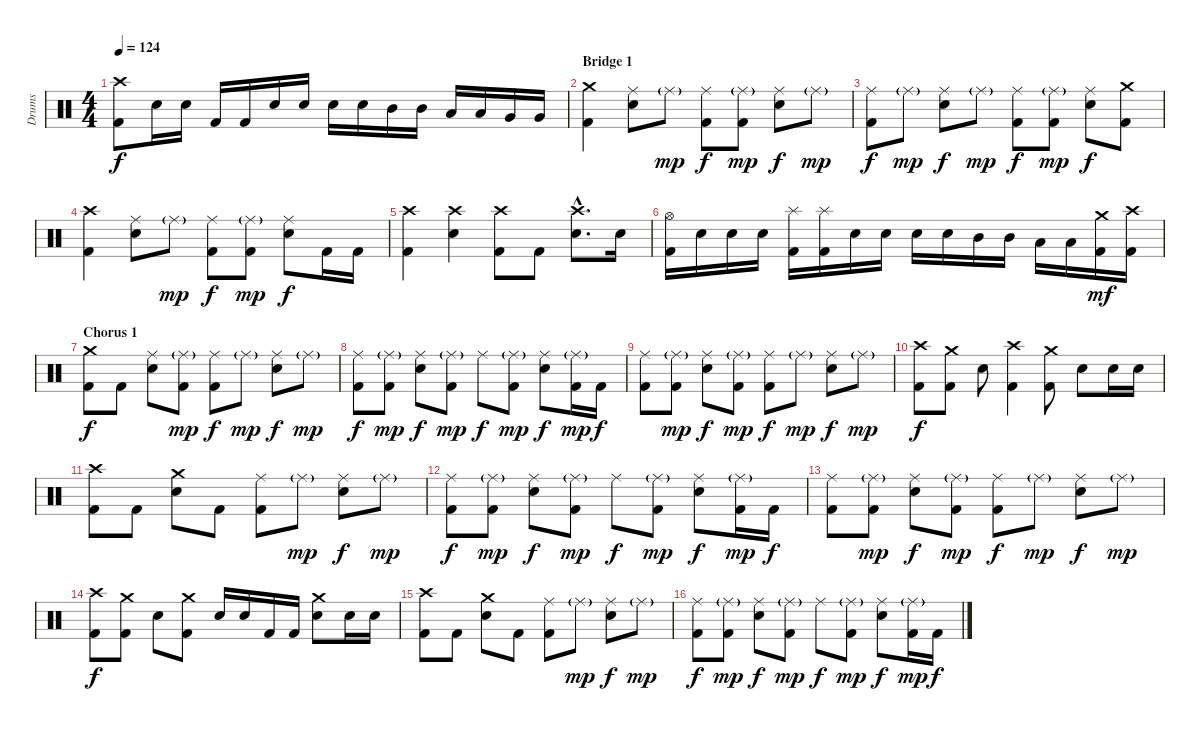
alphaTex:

\track ("Drums" "Drums") {instrument percussion}
\staff {score}
\articulation defaults
\ts (4 4)
\tempo 124
\clef neutral
\ks c
("Crash high (hit)" "Kick (hit) 2").8{dy f} "Snare (hit) 2".16 "Snare (hit) 2".16 "Kick (hit) 2".16 "Kick (hit) 2".16 "Snare (hit) 2".16 "Snare (hit) 2".16 "Snare (hit) 2".16 "Snare (hit) 2".16 "Mid Tom (hit)".16 "Mid Tom (hit)".16 "Low Tom (hit)".16 "Low Tom (hit)".16 "Very Low Tom (hit)".16 "Very Low Tom (hit)".16 |
\section ("" "Bridge 1")
("Crash medium (hit)" "Kick (hit) 2").4 ("Ride (middle)" "Snare (hit) 2").8 "Ride (middle)"{g}.8{dy mp} ("Ride (middle)" "Kick (hit) 2").8{dy f} ("Ride (middle)"{g} "Kick (hit) 2").8{dy mp} ("Ride (middle)" "Snare (hit) 2").8{dy f} "Ride (middle)"{g}.8{dy mp} |
("Ride (middle)" "Kick (hit) 2").8{dy f} "Ride (middle)"{g}.8{dy mp} ("Ride (middle)" "Snare (hit) 2").8{dy f} "Ride (middle)"{g}.8{dy mp} ("Ride (middle)" "Kick (hit) 2").8{dy f} ("Ride (middle)"{g} "Kick (hit) 2").8{dy mp} ("Ride (middle)" "Snare (hit) 2").8{dy f} ("Crash medium (hit)" "Kick (hit) 2").8 |
("Crash high (hit)" "Kick (hit) 2").4 ("Ride (middle)" "Snare (hit) 2").8 "Ride (middle)"{g}.8{dy mp} ("Ride (middle)" "Kick (hit) 2").8{dy f} ("Ride (middle)"{g} "Kick (hit) 2").8{dy mp} ("Ride (middle)" "Snare (hit) 2").8{dy f} "Kick (hit) 2".16 "Kick (hit) 2".16 |
("Crash high (hit)" "Kick (hit) 2").4 ("Crash high (hit)" "Snare (hit) 2").4 ("Crash high (hit)" "Kick (hit) 2").8 "Kick (hit) 2".8 ("Crash high (hit)"{hac} "Snare (hit) 2"{hac}).8{d} "Snare (hit) 2".16 |
("Hi-Hat (open)" "Kick (hit) 2").16 "Snare (hit) 2".16 "Snare (hit) 2".16 "Snare (hit) 2".16 ("Splash (hit)" "Kick (hit) 2").16 ("Splash (hit)" "Kick (hit) 2").16 "Snare (hit) 2".16 "Snare (hit) 2".16 "Snare (hit) 2".16 "Snare (hit) 2".16 "Mid Tom (hit)".16 "Mid Tom (hit)".16 "Low Tom (hit)".16 "Low Tom (hit)".16 ("Crash medium (hit)" "Kick (hit) 2").16{dy mf} ("Crash high (hit)" "Kick (hit) 2").16 |
\section ("" "Chorus 1")
("Crash medium (hit)" "Kick (hit) 2").8{dy f} "Kick (hit) 2".8 ("Ride (middle)" "Snare (hit) 2").8 ("Ride (middle)"{g} "Kick (hit) 2").8{dy mp} ("Ride (middle)" "Kick (hit) 2").8{dy f} "Ride (middle)"{g}.8{dy mp} ("Ride (middle)" "Snare (hit) 2").8{dy f} "Ride (middle)"{g}.8{dy mp} |
("Ride (middle)" "Kick (hit) 2").8{dy f} ("Ride (middle)"{g} "Kick (hit) 2").8{dy mp} ("Ride (middle)" "Snare (hit) 2").8{dy f} ("Ride (middle)"{g} "Kick (hit) 2").8{dy mp} "Ride (middle)".8{dy f} ("Ride (middle)"{g} "Kick (hit) 2").8{dy mp} ("Ride (middle)" "Snare (hit) 2").8{dy f} ("Ride (middle)"{g} "Kick (hit) 2").16{dy mp} "Kick (hit) 2".16{dy f} |
("Ride (middle)" "Kick (hit) 2").8 ("Ride (middle)"{g} "Kick (hit) 2").8{dy mp} ("Ride (middle)" "Snare (hit) 2").8{dy f} ("Ride (middle)"{g} "Kick (hit) 2").8{dy mp} ("Ride (middle)" "Kick (hit) 2").8{dy f} "Ride (middle)"{g}.8{dy mp} ("Ride (middle)" "Snare (hit) 2").8{dy f} "Ride (middle)"{g}.8{dy mp} |
("Crash high (hit)" "Kick (hit) 2").8{dy f} ("Crash medium (hit)" "Kick (hit) 2").8 "Snare (hit) 2".8 ("Crash high (hit)" "Kick (hit) 2").4 ("Crash medium (hit)" "Kick (hit) 2").8 "Snare (hit) 2".8 "Snare (hit) 2".16 "Snare (hit) 2".16 |
("Crash high (hit)" "Kick (hit) 2").8 "Kick (hit) 2".8 ("Crash medium (hit)" "Snare (hit) 2").8 "Kick (hit) 2".8 ("Ride (middle)" "Kick (hit) 2").8 "Ride (middle)"{g}.8{dy mp} ("Ride (middle)" "Snare (hit) 2").8{dy f} "Ride (middle)"{g}.8{dy mp} |
("Ride (middle)" "Kick (hit) 2").8{dy f} ("Ride (middle)"{g} "Kick (hit) 2").8{dy mp} ("Ride (middle)" "Snare (hit) 2").8{dy f} ("Ride (middle)"{g} "Kick (hit) 2").8{dy mp} "Ride (middle)".8{dy f} ("Ride (middle)"{g} "Kick (hit) 2").8{dy mp} ("Ride (middle)" "Snare (hit) 2").8{dy f} ("Ride (middle)"{g} "Kick (hit) 2").16{dy mp} "Kick (hit) 2".16{dy f} |
("Ride (middle)" "Kick (hit) 2").8 ("Ride (middle)"{g} "Kick (hit) 2").8{dy mp} ("Ride (middle)" "Snare (hit) 2").8{dy f} ("Ride (middle)"{g} "Kick (hit) 2").8{dy mp} ("Ride (middle)" "Kick (hit) 2").8{dy f} "Ride (middle)"{g}.8{dy mp} ("Ride (middle)" "Snare (hit) 2").8{dy f} "Ride (middle)"{g}.8{dy mp} |
("Crash high (hit)" "Kick (hit) 2").8{dy f} ("Crash medium (hit)" "Kick (hit) 2").8 "Snare (hit) 2".8 ("Crash medium (hit)" "Kick (hit) 2").8 "Snare (hit) 2".16 "Snare (hit) 2".16 "Kick (hit) 2".16 "Kick (hit) 2".16 ("Crash medium (hit)" "Snare (hit) 2").8 "Snare (hit) 2".16 "Snare (hit) 2".16 |
("Crash high (hit)" "Kick (hit) 2").8 "Kick (hit) 2".8 ("Crash medium (hit)" "Snare (hit) 2").8 "Kick (hit) 2".8 ("Ride (middle)" "Kick (hit) 2").8 "Ride (middle)"{g}.8{dy mp} ("Ride (middle)" "Snare (hit) 2").8{dy f} "Ride (middle)"{g}.8{dy mp} |
("Ride (middle)" "Kick (hit) 2").8{dy f} ("Ride (middle)"{g} "Kick (hit) 2").8{dy mp} ("Ride (middle)" "Snare (hit) 2").8{dy f} ("Ride (middle)"{g} "Kick (hit) 2").8{dy mp} "Ride (middle)".8{dy f} ("Ride (middle)"{g} "Kick (hit) 2").8{dy mp} ("Ride (middle)" "Snare (hit) 2").8{dy f} ("Ride (middle)"{g} "Kick (hit) 2").16{dy mp} "Kick (hit) 2".16{dy f}
